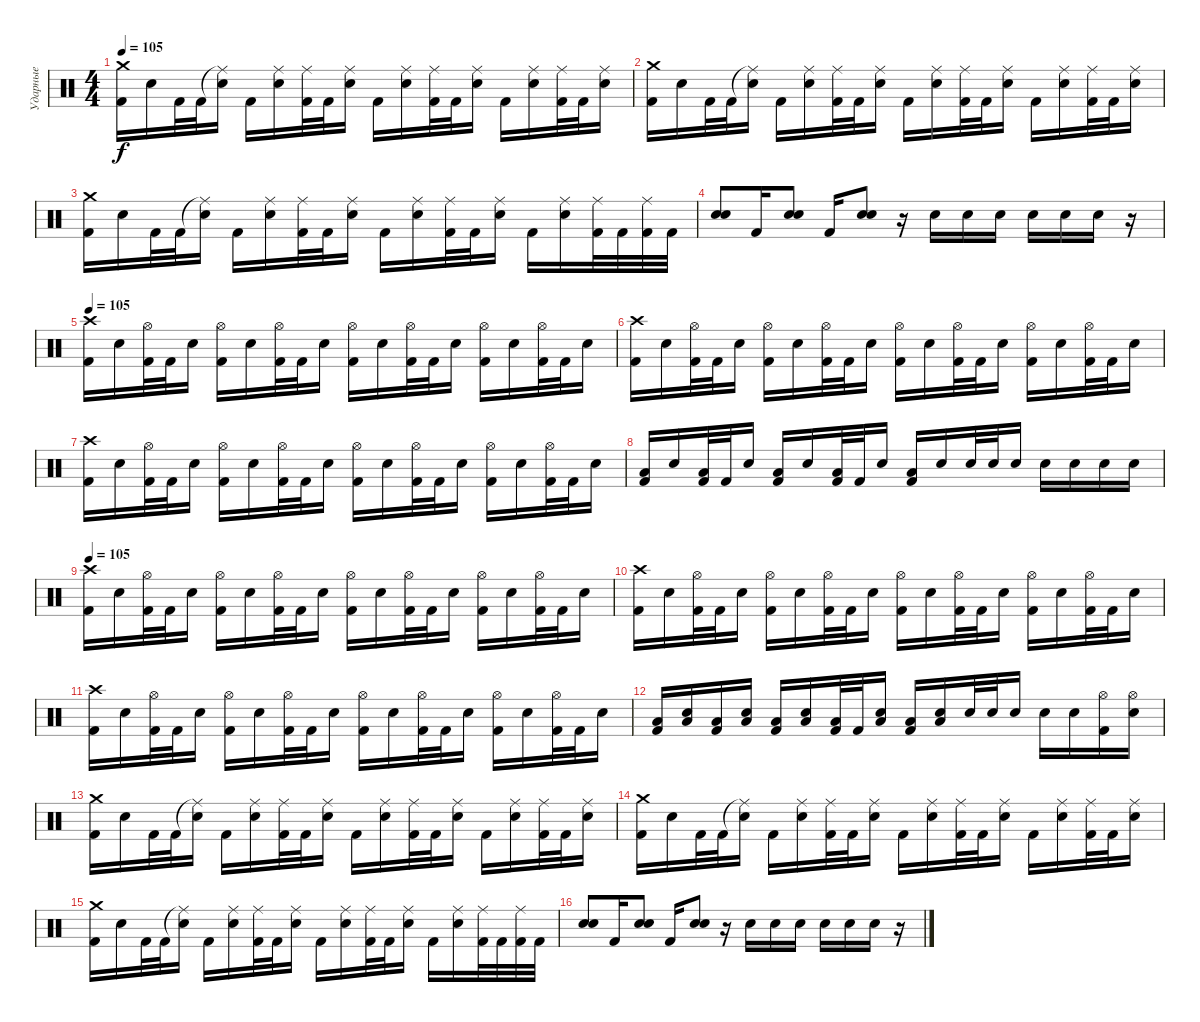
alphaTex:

\track ("Ударные" "Ударные") {instrument percussion}
\staff {score}
\articulation defaults
\ts (4 4)
\tempo 105
\clef neutral
\ks c
("Crash medium (hit)" "Kick (hit) 2").16{dy f} "Snare (hit) 2".16 "Kick (hit) 2".32 "Kick (hit) 2".32 ("Ride (middle)"{t} "Snare (hit) 2").16 "Kick (hit) 2".16 ("Ride (middle)" "Snare (hit) 2").16 ("Ride (middle)" "Kick (hit) 2").32 "Kick (hit) 2".32 ("Ride (middle)" "Snare (hit) 2").16 "Kick (hit) 2".16 ("Ride (middle)" "Snare (hit) 2").16 ("Ride (middle)" "Kick (hit) 2").32 "Kick (hit) 2".32 ("Ride (middle)" "Snare (hit) 2").16 "Kick (hit) 2".16 ("Ride (middle)" "Snare (hit) 2").16 ("Ride (middle)" "Kick (hit) 2").32 "Kick (hit) 2".32 ("Ride (middle)" "Snare (hit) 2").16 |
("Crash medium (hit)" "Kick (hit) 2").16 "Snare (hit) 2".16 "Kick (hit) 2".32 "Kick (hit) 2".32 ("Ride (middle)"{t} "Snare (hit) 2").16 "Kick (hit) 2".16 ("Ride (middle)" "Snare (hit) 2").16 ("Ride (middle)" "Kick (hit) 2").32 "Kick (hit) 2".32 ("Ride (middle)" "Snare (hit) 2").16 "Kick (hit) 2".16 ("Ride (middle)" "Snare (hit) 2").16 ("Ride (middle)" "Kick (hit) 2").32 "Kick (hit) 2".32 ("Ride (middle)" "Snare (hit) 2").16 "Kick (hit) 2".16 ("Ride (middle)" "Snare (hit) 2").16 ("Ride (middle)" "Kick (hit) 2").32 "Kick (hit) 2".32 ("Ride (middle)" "Snare (hit) 2").16 |
("Crash medium (hit)" "Kick (hit) 2").16 "Snare (hit) 2".16 "Kick (hit) 2".32 "Kick (hit) 2".32 ("Ride (middle)"{t} "Snare (hit) 2").16 "Kick (hit) 2".16 ("Ride (middle)" "Snare (hit) 2").16 ("Ride (middle)" "Kick (hit) 2").32 "Kick (hit) 2".32 ("Ride (middle)" "Snare (hit) 2").16 "Kick (hit) 2".16 ("Ride (middle)" "Snare (hit) 2").16 ("Ride (middle)" "Kick (hit) 2").32 "Kick (hit) 2".32 ("Ride (middle)" "Snare (hit) 2").16 "Kick (hit) 2".16 ("Ride (middle)" "Snare (hit) 2").16 ("Ride (middle)" "Kick (hit) 2").32 "Kick (hit) 2".32 ("Ride (middle)" "Kick (hit) 2").32 "Kick (hit) 2".32 |
("Snare (hit) 2" "Snare (hit) 2").8 "Kick (hit) 2".16 ("Snare (hit) 2" "Snare (hit) 2").8 "Kick (hit) 2".16 ("Snare (hit) 2" "Snare (hit) 2").8 r.16 "Snare (hit) 2".16 "Snare (hit) 2".16 "Snare (hit) 2".16 "Snare (hit) 2".16 "Snare (hit) 2".16 "Snare (hit) 2".16 r.16 |
\tempo 105
("Crash high (hit)" "Kick (hit) 2").16 "Snare (hit) 2".16 ("Hi-Hat (open)" "Kick (hit) 2").32 "Kick (hit) 2".32 "Snare (hit) 2".16 ("Hi-Hat (open)" "Kick (hit) 2").16 "Snare (hit) 2".16 ("Hi-Hat (open)" "Kick (hit) 2").32 "Kick (hit) 2".32 "Snare (hit) 2".16 ("Hi-Hat (open)" "Kick (hit) 2").16 "Snare (hit) 2".16 ("Hi-Hat (open)" "Kick (hit) 2").32 "Kick (hit) 2".32 "Snare (hit) 2".16 ("Hi-Hat (open)" "Kick (hit) 2").16 "Snare (hit) 2".16 ("Hi-Hat (open)" "Kick (hit) 2").32 "Kick (hit) 2".32 "Snare (hit) 2".16 |
("Crash high (hit)" "Kick (hit) 2").16 "Snare (hit) 2".16 ("Hi-Hat (open)" "Kick (hit) 2").32 "Kick (hit) 2".32 "Snare (hit) 2".16 ("Hi-Hat (open)" "Kick (hit) 2").16 "Snare (hit) 2".16 ("Hi-Hat (open)" "Kick (hit) 2").32 "Kick (hit) 2".32 "Snare (hit) 2".16 ("Hi-Hat (open)" "Kick (hit) 2").16 "Snare (hit) 2".16 ("Hi-Hat (open)" "Kick (hit) 2").32 "Kick (hit) 2".32 "Snare (hit) 2".16 ("Hi-Hat (open)" "Kick (hit) 2").16 "Snare (hit) 2".16 ("Hi-Hat (open)" "Kick (hit) 2").32 "Kick (hit) 2".32 "Snare (hit) 2".16 |
("Crash high (hit)" "Kick (hit) 2").16 "Snare (hit) 2".16 ("Hi-Hat (open)" "Kick (hit) 2").32 "Kick (hit) 2".32 "Snare (hit) 2".16 ("Hi-Hat (open)" "Kick (hit) 2").16 "Snare (hit) 2".16 ("Hi-Hat (open)" "Kick (hit) 2").32 "Kick (hit) 2".32 "Snare (hit) 2".16 ("Hi-Hat (open)" "Kick (hit) 2").16 "Snare (hit) 2".16 ("Hi-Hat (open)" "Kick (hit) 2").32 "Kick (hit) 2".32 "Snare (hit) 2".16 ("Hi-Hat (open)" "Kick (hit) 2").16 "Snare (hit) 2".16 ("Hi-Hat (open)" "Kick (hit) 2").32 "Kick (hit) 2".32 "Snare (hit) 2".16 |
("Low Floor Tom (hit)" "Kick (hit) 2").16 "Snare (hit) 2".16 ("Low Floor Tom (hit)" "Kick (hit) 2").32 "Kick (hit) 2".32 "Snare (hit) 2".16 ("Low Floor Tom (hit)" "Kick (hit) 2").16 "Snare (hit) 2".16 ("Low Floor Tom (hit)" "Kick (hit) 2").32 "Kick (hit) 2".32 "Snare (hit) 2".16 ("Low Floor Tom (hit)" "Kick (hit) 2").16 "Snare (hit) 2".16 "Snare (hit) 2".32 "Snare (hit) 2".32 "Snare (hit) 2".16 "Snare (hit) 2".16 "Snare (hit) 2".16 "Snare (hit) 2".16 "Snare (hit) 2".16 |
\tempo 105
("Crash high (hit)" "Kick (hit) 2").16 "Snare (hit) 2".16 ("Hi-Hat (open)" "Kick (hit) 2").32 "Kick (hit) 2".32 "Snare (hit) 2".16 ("Hi-Hat (open)" "Kick (hit) 2").16 "Snare (hit) 2".16 ("Hi-Hat (open)" "Kick (hit) 2").32 "Kick (hit) 2".32 "Snare (hit) 2".16 ("Hi-Hat (open)" "Kick (hit) 2").16 "Snare (hit) 2".16 ("Hi-Hat (open)" "Kick (hit) 2").32 "Kick (hit) 2".32 "Snare (hit) 2".16 ("Hi-Hat (open)" "Kick (hit) 2").16 "Snare (hit) 2".16 ("Hi-Hat (open)" "Kick (hit) 2").32 "Kick (hit) 2".32 "Snare (hit) 2".16 |
("Crash high (hit)" "Kick (hit) 2").16 "Snare (hit) 2".16 ("Hi-Hat (open)" "Kick (hit) 2").32 "Kick (hit) 2".32 "Snare (hit) 2".16 ("Hi-Hat (open)" "Kick (hit) 2").16 "Snare (hit) 2".16 ("Hi-Hat (open)" "Kick (hit) 2").32 "Kick (hit) 2".32 "Snare (hit) 2".16 ("Hi-Hat (open)" "Kick (hit) 2").16 "Snare (hit) 2".16 ("Hi-Hat (open)" "Kick (hit) 2").32 "Kick (hit) 2".32 "Snare (hit) 2".16 ("Hi-Hat (open)" "Kick (hit) 2").16 "Snare (hit) 2".16 ("Hi-Hat (open)" "Kick (hit) 2").32 "Kick (hit) 2".32 "Snare (hit) 2".16 |
("Crash high (hit)" "Kick (hit) 2").16 "Snare (hit) 2".16 ("Hi-Hat (open)" "Kick (hit) 2").32 "Kick (hit) 2".32 "Snare (hit) 2".16 ("Hi-Hat (open)" "Kick (hit) 2").16 "Snare (hit) 2".16 ("Hi-Hat (open)" "Kick (hit) 2").32 "Kick (hit) 2".32 "Snare (hit) 2".16 ("Hi-Hat (open)" "Kick (hit) 2").16 "Snare (hit) 2".16 ("Hi-Hat (open)" "Kick (hit) 2").32 "Kick (hit) 2".32 "Snare (hit) 2".16 ("Hi-Hat (open)" "Kick (hit) 2").16 "Snare (hit) 2".16 ("Hi-Hat (open)" "Kick (hit) 2").32 "Kick (hit) 2".32 "Snare (hit) 2".16 |
("Low Floor Tom (hit)" "Kick (hit) 2").16 ("Low Floor Tom (hit)" "Snare (hit) 2").16 ("Low Floor Tom (hit)" "Kick (hit) 2").16 ("Low Floor Tom (hit)" "Snare (hit) 2").16 ("Low Floor Tom (hit)" "Kick (hit) 2").16 ("Low Floor Tom (hit)" "Snare (hit) 2").16 ("Low Floor Tom (hit)" "Kick (hit) 2").32 "Kick (hit) 2".32 ("Low Floor Tom (hit)" "Snare (hit) 2").16 ("Low Floor Tom (hit)" "Kick (hit) 2").16 ("Low Floor Tom (hit)" "Snare (hit) 2").16 "Snare (hit) 2".32 "Snare (hit) 2".32 "Snare (hit) 2".16 "Snare (hit) 2".16 "Snare (hit) 2".16 ("Hi-Hat (open)" "Kick (hit) 2").16 ("Hi-Hat (open)" "Snare (hit) 2").16 |
("Crash medium (hit)" "Kick (hit) 2").16 "Snare (hit) 2".16 "Kick (hit) 2".32 "Kick (hit) 2".32 ("Ride (middle)"{t} "Snare (hit) 2").16 "Kick (hit) 2".16 ("Ride (middle)" "Snare (hit) 2").16 ("Ride (middle)" "Kick (hit) 2").32 "Kick (hit) 2".32 ("Ride (middle)" "Snare (hit) 2").16 "Kick (hit) 2".16 ("Ride (middle)" "Snare (hit) 2").16 ("Ride (middle)" "Kick (hit) 2").32 "Kick (hit) 2".32 ("Ride (middle)" "Snare (hit) 2").16 "Kick (hit) 2".16 ("Ride (middle)" "Snare (hit) 2").16 ("Ride (middle)" "Kick (hit) 2").32 "Kick (hit) 2".32 ("Ride (middle)" "Snare (hit) 2").16 |
("Crash medium (hit)" "Kick (hit) 2").16 "Snare (hit) 2".16 "Kick (hit) 2".32 "Kick (hit) 2".32 ("Ride (middle)"{t} "Snare (hit) 2").16 "Kick (hit) 2".16 ("Ride (middle)" "Snare (hit) 2").16 ("Ride (middle)" "Kick (hit) 2").32 "Kick (hit) 2".32 ("Ride (middle)" "Snare (hit) 2").16 "Kick (hit) 2".16 ("Ride (middle)" "Snare (hit) 2").16 ("Ride (middle)" "Kick (hit) 2").32 "Kick (hit) 2".32 ("Ride (middle)" "Snare (hit) 2").16 "Kick (hit) 2".16 ("Ride (middle)" "Snare (hit) 2").16 ("Ride (middle)" "Kick (hit) 2").32 "Kick (hit) 2".32 ("Ride (middle)" "Snare (hit) 2").16 |
("Crash medium (hit)" "Kick (hit) 2").16 "Snare (hit) 2".16 "Kick (hit) 2".32 "Kick (hit) 2".32 ("Ride (middle)"{t} "Snare (hit) 2").16 "Kick (hit) 2".16 ("Ride (middle)" "Snare (hit) 2").16 ("Ride (middle)" "Kick (hit) 2").32 "Kick (hit) 2".32 ("Ride (middle)" "Snare (hit) 2").16 "Kick (hit) 2".16 ("Ride (middle)" "Snare (hit) 2").16 ("Ride (middle)" "Kick (hit) 2").32 "Kick (hit) 2".32 ("Ride (middle)" "Snare (hit) 2").16 "Kick (hit) 2".16 ("Ride (middle)" "Snare (hit) 2").16 ("Ride (middle)" "Kick (hit) 2").32 "Kick (hit) 2".32 ("Ride (middle)" "Kick (hit) 2").32 "Kick (hit) 2".32 |
("Snare (hit) 2" "Snare (hit) 2").8 "Kick (hit) 2".16 ("Snare (hit) 2" "Snare (hit) 2").8 "Kick (hit) 2".16 ("Snare (hit) 2" "Snare (hit) 2").8 r.16 "Snare (hit) 2".16 "Snare (hit) 2".16 "Snare (hit) 2".16 "Snare (hit) 2".16 "Snare (hit) 2".16 "Snare (hit) 2".16 r.16
